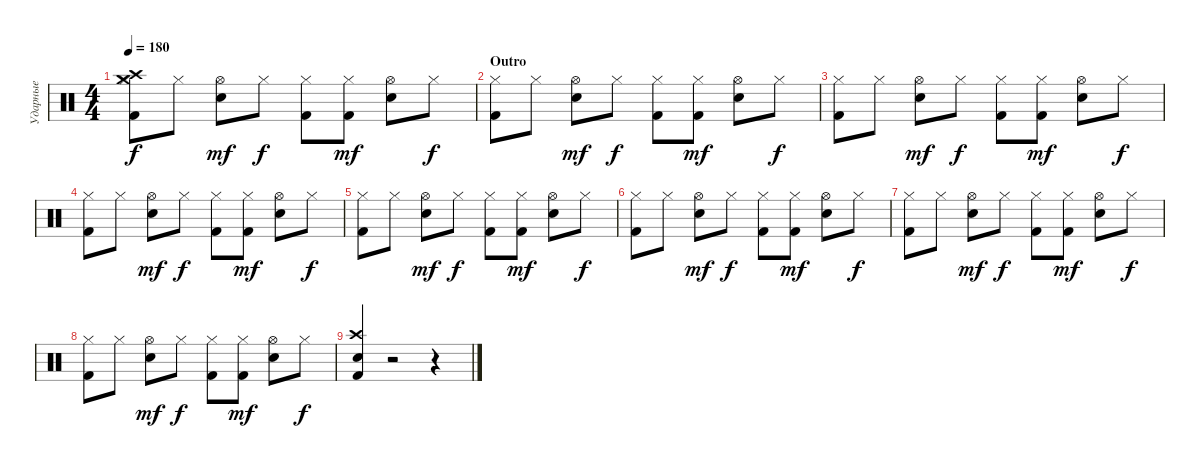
\track ("Ударные" "Ударные") {instrument percussion}
\staff {score}
\articulation defaults
\ts (4 4)
\tempo 180
\clef neutral
\ks c
("Kick (hit) 2" "Hi-Hat (closed)" "Crash high (hit)" "Crash medium (hit)").8{dy f} "Hi-Hat (closed)".8 ("Snare (hit) 2" "Hi-Hat (open)").8{dy mf} "Hi-Hat (closed)".8{dy f} ("Kick (hit) 2" "Hi-Hat (closed)").8 ("Kick (hit) 2" "Hi-Hat (closed)").8{dy mf} ("Snare (hit) 2" "Hi-Hat (open)").8 "Hi-Hat (closed)".8{dy f} |
\section ("" "Outro")
("Kick (hit) 2" "Hi-Hat (closed)").8 "Hi-Hat (closed)".8 ("Snare (hit) 2" "Hi-Hat (open)").8{dy mf} "Hi-Hat (closed)".8{dy f} ("Kick (hit) 2" "Hi-Hat (closed)").8 ("Kick (hit) 2" "Hi-Hat (closed)").8{dy mf} ("Snare (hit) 2" "Hi-Hat (open)").8 "Hi-Hat (closed)".8{dy f} |
("Kick (hit) 2" "Hi-Hat (closed)").8 "Hi-Hat (closed)".8 ("Snare (hit) 2" "Hi-Hat (open)").8{dy mf} "Hi-Hat (closed)".8{dy f} ("Kick (hit) 2" "Hi-Hat (closed)").8 ("Kick (hit) 2" "Hi-Hat (closed)").8{dy mf} ("Snare (hit) 2" "Hi-Hat (open)").8 "Hi-Hat (closed)".8{dy f} |
("Kick (hit) 2" "Hi-Hat (closed)").8 "Hi-Hat (closed)".8 ("Snare (hit) 2" "Hi-Hat (open)").8{dy mf} "Hi-Hat (closed)".8{dy f} ("Kick (hit) 2" "Hi-Hat (closed)").8 ("Kick (hit) 2" "Hi-Hat (closed)").8{dy mf} ("Snare (hit) 2" "Hi-Hat (open)").8 "Hi-Hat (closed)".8{dy f} |
("Kick (hit) 2" "Hi-Hat (closed)").8 "Hi-Hat (closed)".8 ("Snare (hit) 2" "Hi-Hat (open)").8{dy mf} "Hi-Hat (closed)".8{dy f} ("Kick (hit) 2" "Hi-Hat (closed)").8 ("Kick (hit) 2" "Hi-Hat (closed)").8{dy mf} ("Snare (hit) 2" "Hi-Hat (open)").8 "Hi-Hat (closed)".8{dy f} |
("Kick (hit) 2" "Hi-Hat (closed)").8 "Hi-Hat (closed)".8 ("Snare (hit) 2" "Hi-Hat (open)").8{dy mf} "Hi-Hat (closed)".8{dy f} ("Kick (hit) 2" "Hi-Hat (closed)").8 ("Kick (hit) 2" "Hi-Hat (closed)").8{dy mf} ("Snare (hit) 2" "Hi-Hat (open)").8 "Hi-Hat (closed)".8{dy f} |
("Kick (hit) 2" "Hi-Hat (closed)").8 "Hi-Hat (closed)".8 ("Snare (hit) 2" "Hi-Hat (open)").8{dy mf} "Hi-Hat (closed)".8{dy f} ("Kick (hit) 2" "Hi-Hat (closed)").8 ("Kick (hit) 2" "Hi-Hat (closed)").8{dy mf} ("Snare (hit) 2" "Hi-Hat (open)").8 "Hi-Hat (closed)".8{dy f} |
("Kick (hit) 2" "Hi-Hat (closed)").8 "Hi-Hat (closed)".8 ("Snare (hit) 2" "Hi-Hat (open)").8{dy mf} "Hi-Hat (closed)".8{dy f} ("Kick (hit) 2" "Hi-Hat (closed)").8 ("Kick (hit) 2" "Hi-Hat (closed)").8{dy mf} ("Snare (hit) 2" "Hi-Hat (open)").8 "Hi-Hat (closed)".8{dy f} |
("Crash high (hit)" "Kick (hit) 2" "Electric Snare (hit)").4 r.2 r.4
